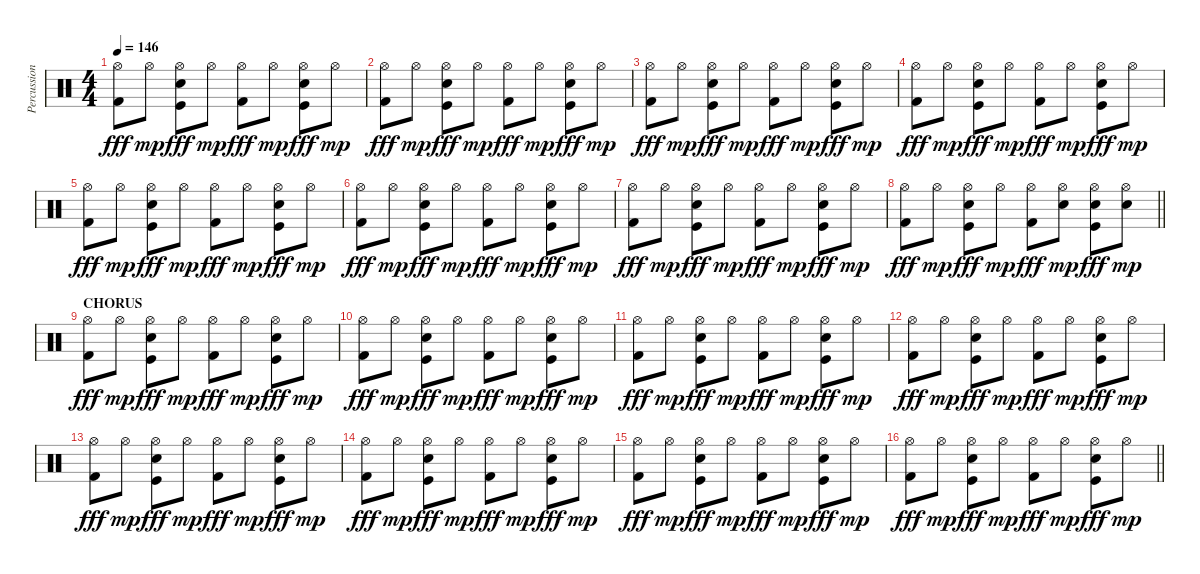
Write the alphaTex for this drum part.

\track ("Percussion" "Percussion") {instrument percussion}
\staff {score}
\articulation defaults
\ts (4 4)
\tempo 146
\clef neutral
\ks c
("Hi-Hat (open)" "Kick (hit) 2").8{dy fff} "Hi-Hat (open)".8{dy mp} ("Hi-Hat (open)" "Kick (hit)" "Snare (hit) 2").8{dy fff} "Hi-Hat (open)".8{dy mp} ("Hi-Hat (open)" "Kick (hit) 2").8{dy fff} "Hi-Hat (open)".8{dy mp} ("Hi-Hat (open)" "Kick (hit)" "Snare (hit) 2").8{dy fff} "Hi-Hat (open)".8{dy mp} |
("Hi-Hat (open)" "Kick (hit) 2").8{dy fff} "Hi-Hat (open)".8{dy mp} ("Hi-Hat (open)" "Kick (hit)" "Snare (hit) 2").8{dy fff} "Hi-Hat (open)".8{dy mp} ("Hi-Hat (open)" "Kick (hit) 2").8{dy fff} "Hi-Hat (open)".8{dy mp} ("Hi-Hat (open)" "Kick (hit)" "Snare (hit) 2").8{dy fff} "Hi-Hat (open)".8{dy mp} |
("Hi-Hat (open)" "Kick (hit) 2").8{dy fff} "Hi-Hat (open)".8{dy mp} ("Hi-Hat (open)" "Kick (hit)" "Snare (hit) 2").8{dy fff} "Hi-Hat (open)".8{dy mp} ("Hi-Hat (open)" "Kick (hit) 2").8{dy fff} "Hi-Hat (open)".8{dy mp} ("Hi-Hat (open)" "Kick (hit)" "Snare (hit) 2").8{dy fff} "Hi-Hat (open)".8{dy mp} |
("Hi-Hat (open)" "Kick (hit) 2").8{dy fff} "Hi-Hat (open)".8{dy mp} ("Hi-Hat (open)" "Kick (hit)" "Snare (hit) 2").8{dy fff} "Hi-Hat (open)".8{dy mp} ("Hi-Hat (open)" "Kick (hit) 2").8{dy fff} "Hi-Hat (open)".8{dy mp} ("Hi-Hat (open)" "Kick (hit)" "Snare (hit) 2").8{dy fff} "Hi-Hat (open)".8{dy mp} |
("Hi-Hat (open)" "Kick (hit) 2").8{dy fff} "Hi-Hat (open)".8{dy mp} ("Hi-Hat (open)" "Kick (hit)" "Snare (hit) 2").8{dy fff} "Hi-Hat (open)".8{dy mp} ("Hi-Hat (open)" "Kick (hit) 2").8{dy fff} "Hi-Hat (open)".8{dy mp} ("Hi-Hat (open)" "Kick (hit)" "Snare (hit) 2").8{dy fff} "Hi-Hat (open)".8{dy mp} |
("Hi-Hat (open)" "Kick (hit) 2").8{dy fff} "Hi-Hat (open)".8{dy mp} ("Hi-Hat (open)" "Kick (hit)" "Snare (hit) 2").8{dy fff} "Hi-Hat (open)".8{dy mp} ("Hi-Hat (open)" "Kick (hit) 2").8{dy fff} "Hi-Hat (open)".8{dy mp} ("Hi-Hat (open)" "Kick (hit)" "Snare (hit) 2").8{dy fff} "Hi-Hat (open)".8{dy mp} |
("Hi-Hat (open)" "Kick (hit) 2").8{dy fff} "Hi-Hat (open)".8{dy mp} ("Hi-Hat (open)" "Kick (hit)" "Snare (hit) 2").8{dy fff} "Hi-Hat (open)".8{dy mp} ("Hi-Hat (open)" "Kick (hit) 2").8{dy fff} "Hi-Hat (open)".8{dy mp} ("Hi-Hat (open)" "Kick (hit)" "Snare (hit) 2").8{dy fff} "Hi-Hat (open)".8{dy mp} |
\barLineRight lightlight
("Hi-Hat (open)" "Kick (hit) 2").8{dy fff} "Hi-Hat (open)".8{dy mp} ("Hi-Hat (open)" "Kick (hit)" "Snare (hit) 2").8{dy fff} "Hi-Hat (open)".8{dy mp} ("Hi-Hat (open)" "Kick (hit) 2").8{dy fff} ("Hi-Hat (open)" "Snare (hit) 2").8{dy mp} ("Hi-Hat (open)" "Kick (hit)" "Snare (hit) 2").8{dy fff} ("Hi-Hat (open)" "Snare (hit) 2").8{dy mp} |
\section ("" "CHORUS")
("Hi-Hat (open)" "Kick (hit) 2").8{dy fff} "Hi-Hat (open)".8{dy mp} ("Hi-Hat (open)" "Kick (hit)" "Snare (hit) 2").8{dy fff} "Hi-Hat (open)".8{dy mp} ("Hi-Hat (open)" "Kick (hit) 2").8{dy fff} "Hi-Hat (open)".8{dy mp} ("Hi-Hat (open)" "Kick (hit)" "Snare (hit) 2").8{dy fff} "Hi-Hat (open)".8{dy mp} |
("Hi-Hat (open)" "Kick (hit) 2").8{dy fff} "Hi-Hat (open)".8{dy mp} ("Hi-Hat (open)" "Kick (hit)" "Snare (hit) 2").8{dy fff} "Hi-Hat (open)".8{dy mp} ("Hi-Hat (open)" "Kick (hit) 2").8{dy fff} "Hi-Hat (open)".8{dy mp} ("Hi-Hat (open)" "Kick (hit)" "Snare (hit) 2").8{dy fff} "Hi-Hat (open)".8{dy mp} |
("Hi-Hat (open)" "Kick (hit) 2").8{dy fff} "Hi-Hat (open)".8{dy mp} ("Hi-Hat (open)" "Kick (hit)" "Snare (hit) 2").8{dy fff} "Hi-Hat (open)".8{dy mp} ("Hi-Hat (open)" "Kick (hit) 2").8{dy fff} "Hi-Hat (open)".8{dy mp} ("Hi-Hat (open)" "Kick (hit)" "Snare (hit) 2").8{dy fff} "Hi-Hat (open)".8{dy mp} |
("Hi-Hat (open)" "Kick (hit) 2").8{dy fff} "Hi-Hat (open)".8{dy mp} ("Hi-Hat (open)" "Kick (hit)" "Snare (hit) 2").8{dy fff} "Hi-Hat (open)".8{dy mp} ("Hi-Hat (open)" "Kick (hit) 2").8{dy fff} "Hi-Hat (open)".8{dy mp} ("Hi-Hat (open)" "Kick (hit)" "Snare (hit) 2").8{dy fff} "Hi-Hat (open)".8{dy mp} |
("Hi-Hat (open)" "Kick (hit) 2").8{dy fff} "Hi-Hat (open)".8{dy mp} ("Hi-Hat (open)" "Kick (hit)" "Snare (hit) 2").8{dy fff} "Hi-Hat (open)".8{dy mp} ("Hi-Hat (open)" "Kick (hit) 2").8{dy fff} "Hi-Hat (open)".8{dy mp} ("Hi-Hat (open)" "Kick (hit)" "Snare (hit) 2").8{dy fff} "Hi-Hat (open)".8{dy mp} |
("Hi-Hat (open)" "Kick (hit) 2").8{dy fff} "Hi-Hat (open)".8{dy mp} ("Hi-Hat (open)" "Kick (hit)" "Snare (hit) 2").8{dy fff} "Hi-Hat (open)".8{dy mp} ("Hi-Hat (open)" "Kick (hit) 2").8{dy fff} "Hi-Hat (open)".8{dy mp} ("Hi-Hat (open)" "Kick (hit)" "Snare (hit) 2").8{dy fff} "Hi-Hat (open)".8{dy mp} |
("Hi-Hat (open)" "Kick (hit) 2").8{dy fff} "Hi-Hat (open)".8{dy mp} ("Hi-Hat (open)" "Kick (hit)" "Snare (hit) 2").8{dy fff} "Hi-Hat (open)".8{dy mp} ("Hi-Hat (open)" "Kick (hit) 2").8{dy fff} "Hi-Hat (open)".8{dy mp} ("Hi-Hat (open)" "Kick (hit)" "Snare (hit) 2").8{dy fff} "Hi-Hat (open)".8{dy mp} |
\barLineRight lightlight
("Hi-Hat (open)" "Kick (hit) 2").8{dy fff} "Hi-Hat (open)".8{dy mp} ("Hi-Hat (open)" "Kick (hit)" "Snare (hit) 2").8{dy fff} "Hi-Hat (open)".8{dy mp} ("Hi-Hat (open)" "Kick (hit) 2").8{dy fff} "Hi-Hat (open)".8{dy mp} ("Hi-Hat (open)" "Kick (hit)" "Snare (hit) 2").8{dy fff} "Hi-Hat (open)".8{dy mp}
